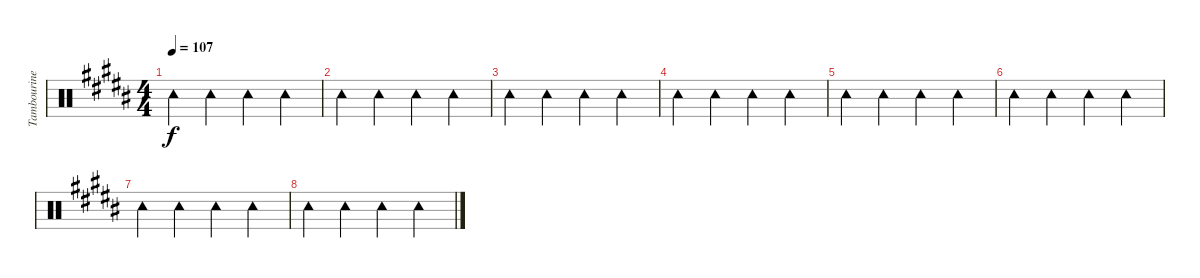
\track ("Tambourine" "Tambourine") {instrument percussion}
\staff {score}
\articulation defaults
\ts (4 4)
\tempo 107
\clef neutral
\ks b "Tambourine (hit)".4{dy f} "Tambourine (hit)".4 "Tambourine (hit)".4 "Tambourine (hit)".4
|
"Tambourine (hit)".4 "Tambourine (hit)".4 "Tambourine (hit)".4 "Tambourine (hit)".4 |
"Tambourine (hit)".4 "Tambourine (hit)".4 "Tambourine (hit)".4 "Tambourine (hit)".4 |
"Tambourine (hit)".4 "Tambourine (hit)".4 "Tambourine (hit)".4 "Tambourine (hit)".4 |
"Tambourine (hit)".4 "Tambourine (hit)".4 "Tambourine (hit)".4 "Tambourine (hit)".4 |
"Tambourine (hit)".4 "Tambourine (hit)".4 "Tambourine (hit)".4 "Tambourine (hit)".4 |
"Tambourine (hit)".4 "Tambourine (hit)".4 "Tambourine (hit)".4 "Tambourine (hit)".4 |
"Tambourine (hit)".4 "Tambourine (hit)".4 "Tambourine (hit)".4 "Tambourine (hit)".4
